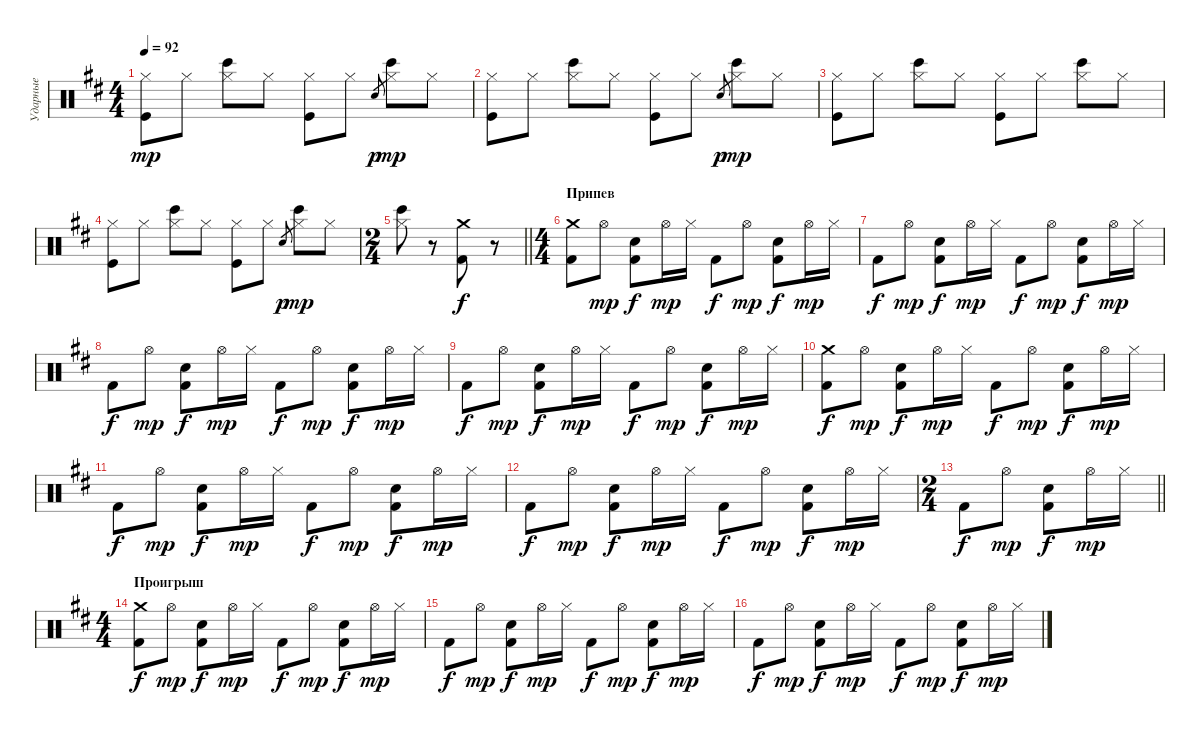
\track ("Ударные" "Ударные") {instrument percussion}
\staff {score}
\articulation defaults
\ts (4 4)
\tempo 92
\clef neutral
\ks bminor
("Hi-Hat (closed)" "Kick (hit)").8{dy mp volume 13} "Hi-Hat (closed)".8 ("Hi-Hat (closed)" "Bongo High (hit)").8 "Hi-Hat (closed)".8 ("Hi-Hat (closed)" "Kick (hit)").8 "Hi-Hat (closed)".8 "Snare (hit)".8{gr dy p} ("Hi-Hat (closed)" "Bongo High (hit)").8{dy mp} "Hi-Hat (closed)".8 |
("Hi-Hat (closed)" "Kick (hit)").8{volume 13} "Hi-Hat (closed)".8 ("Hi-Hat (closed)" "Bongo High (hit)").8 "Hi-Hat (closed)".8 ("Hi-Hat (closed)" "Kick (hit)").8 "Hi-Hat (closed)".8 "Snare (hit)".8{gr dy p} ("Hi-Hat (closed)" "Bongo High (hit)").8{dy mp} "Hi-Hat (closed)".8 |
("Hi-Hat (closed)" "Kick (hit)").8{volume 13} "Hi-Hat (closed)".8 ("Hi-Hat (closed)" "Bongo High (hit)").8 "Hi-Hat (closed)".8 ("Hi-Hat (closed)" "Kick (hit)").8 "Hi-Hat (closed)".8 ("Hi-Hat (closed)" "Bongo High (hit)").8 "Hi-Hat (closed)".8 |
("Hi-Hat (closed)" "Kick (hit)").8{volume 13} "Hi-Hat (closed)".8 ("Hi-Hat (closed)" "Bongo High (hit)").8 "Hi-Hat (closed)".8 ("Hi-Hat (closed)" "Kick (hit)").8 "Hi-Hat (closed)".8 "Snare (hit)".8{gr dy p} ("Hi-Hat (closed)" "Bongo High (hit)").8{dy mp} "Hi-Hat (closed)".8 |
\ts (2 4)
\barLineRight lightlight
("Hi-Hat (closed)" "Bongo High (hit)").8 r.8 ("Crash medium (hit)" "Kick (hit) 2").8{dy f} r.8 |
\ts (4 4)
\section ("" "Припев")
("Crash medium (hit)" "Kick (hit) 2").8 "Hi-Hat (open)".8{dy mp} ("Electric Snare (hit)" "Kick (hit) 2").8{dy f} "Hi-Hat (open)".16{dy mp} "Hi-Hat (closed)".16 "Kick (hit) 2".8{dy f} "Hi-Hat (open)".8{dy mp} ("Electric Snare (hit)" "Kick (hit) 2").8{dy f} "Hi-Hat (open)".16{dy mp} "Hi-Hat (closed)".16 |
"Kick (hit) 2".8{dy f} "Hi-Hat (open)".8{dy mp} ("Electric Snare (hit)" "Kick (hit) 2").8{dy f} "Hi-Hat (open)".16{dy mp} "Hi-Hat (closed)".16 "Kick (hit) 2".8{dy f} "Hi-Hat (open)".8{dy mp} ("Electric Snare (hit)" "Kick (hit) 2").8{dy f} "Hi-Hat (open)".16{dy mp} "Hi-Hat (closed)".16 |
"Kick (hit) 2".8{dy f} "Hi-Hat (open)".8{dy mp} ("Electric Snare (hit)" "Kick (hit) 2").8{dy f} "Hi-Hat (open)".16{dy mp} "Hi-Hat (closed)".16 "Kick (hit) 2".8{dy f} "Hi-Hat (open)".8{dy mp} ("Electric Snare (hit)" "Kick (hit) 2").8{dy f} "Hi-Hat (open)".16{dy mp} "Hi-Hat (closed)".16 |
"Kick (hit) 2".8{dy f} "Hi-Hat (open)".8{dy mp} ("Electric Snare (hit)" "Kick (hit) 2").8{dy f} "Hi-Hat (open)".16{dy mp} "Hi-Hat (closed)".16 "Kick (hit) 2".8{dy f} "Hi-Hat (open)".8{dy mp} ("Electric Snare (hit)" "Kick (hit) 2").8{dy f} "Hi-Hat (open)".16{dy mp} "Hi-Hat (closed)".16 |
("Crash medium (hit)" "Kick (hit) 2").8{dy f} "Hi-Hat (open)".8{dy mp} ("Electric Snare (hit)" "Kick (hit) 2").8{dy f} "Hi-Hat (open)".16{dy mp} "Hi-Hat (closed)".16 "Kick (hit) 2".8{dy f} "Hi-Hat (open)".8{dy mp} ("Electric Snare (hit)" "Kick (hit) 2").8{dy f} "Hi-Hat (open)".16{dy mp} "Hi-Hat (closed)".16 |
"Kick (hit) 2".8{dy f} "Hi-Hat (open)".8{dy mp} ("Electric Snare (hit)" "Kick (hit) 2").8{dy f} "Hi-Hat (open)".16{dy mp} "Hi-Hat (closed)".16 "Kick (hit) 2".8{dy f} "Hi-Hat (open)".8{dy mp} ("Electric Snare (hit)" "Kick (hit) 2").8{dy f} "Hi-Hat (open)".16{dy mp} "Hi-Hat (closed)".16 |
"Kick (hit) 2".8{dy f} "Hi-Hat (open)".8{dy mp} ("Electric Snare (hit)" "Kick (hit) 2").8{dy f} "Hi-Hat (open)".16{dy mp} "Hi-Hat (closed)".16 "Kick (hit) 2".8{dy f} "Hi-Hat (open)".8{dy mp} ("Electric Snare (hit)" "Kick (hit) 2").8{dy f} "Hi-Hat (open)".16{dy mp} "Hi-Hat (closed)".16 |
\ts (2 4)
\barLineRight lightlight "Kick (hit) 2".8{dy f} "Hi-Hat (open)".8{dy mp}
("Electric Snare (hit)" "Kick (hit) 2").8{dy f} "Hi-Hat (open)".16{dy mp} "Hi-Hat (closed)".16 |
\ts (4 4)
\section ("" "Проигрыш")
("Crash medium (hit)" "Kick (hit) 2").8{dy f} "Hi-Hat (open)".8{dy mp} ("Electric Snare (hit)" "Kick (hit) 2").8{dy f} "Hi-Hat (open)".16{dy mp} "Hi-Hat (closed)".16 "Kick (hit) 2".8{dy f} "Hi-Hat (open)".8{dy mp} ("Electric Snare (hit)" "Kick (hit) 2").8{dy f} "Hi-Hat (open)".16{dy mp} "Hi-Hat (closed)".16 |
"Kick (hit) 2".8{dy f} "Hi-Hat (open)".8{dy mp} ("Electric Snare (hit)" "Kick (hit) 2").8{dy f} "Hi-Hat (open)".16{dy mp} "Hi-Hat (closed)".16 "Kick (hit) 2".8{dy f} "Hi-Hat (open)".8{dy mp} ("Electric Snare (hit)" "Kick (hit) 2").8{dy f} "Hi-Hat (open)".16{dy mp} "Hi-Hat (closed)".16 |
"Kick (hit) 2".8{dy f} "Hi-Hat (open)".8{dy mp} ("Electric Snare (hit)" "Kick (hit) 2").8{dy f} "Hi-Hat (open)".16{dy mp} "Hi-Hat (closed)".16 "Kick (hit) 2".8{dy f} "Hi-Hat (open)".8{dy mp} ("Electric Snare (hit)" "Kick (hit) 2").8{dy f} "Hi-Hat (open)".16{dy mp} "Hi-Hat (closed)".16
